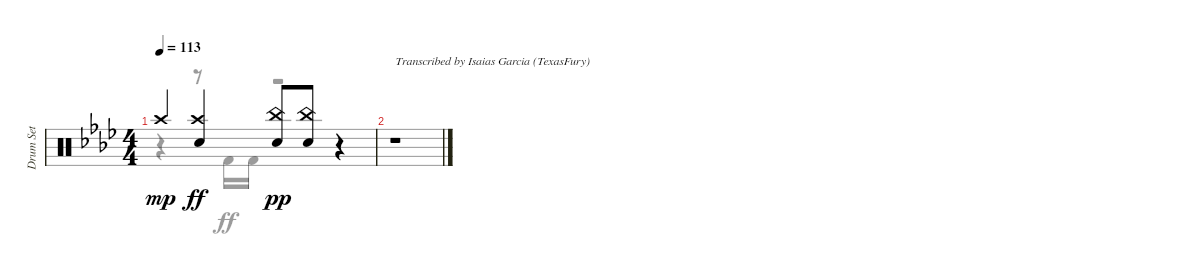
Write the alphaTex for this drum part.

\track ("Drum Set" "Drum Set") {instrument percussion}
\staff {score}
\articulation defaults
\voice
\ts (4 4)
\tempo 113
\clef neutral
\ks fminor "Crash high (hit)".4{dy mp}
("Crash high (hit)" "Electric Snare (hit)").4{dy ff} ("Electric Snare (hit)" "China (hit)").8{dy pp} ("Electric Snare (hit)" "China (hit)").8 r.4{volume 0} |
r.1{txt "Transcribed by Isaias Garcia (TexasFury)"}
\voice
\clef neutral
\ottava regular
\simile none
\ks fminor
r.4{dy ff} r.8 "Kick (hit) 2".16 "Kick (hit) 2".16 r.2 |
